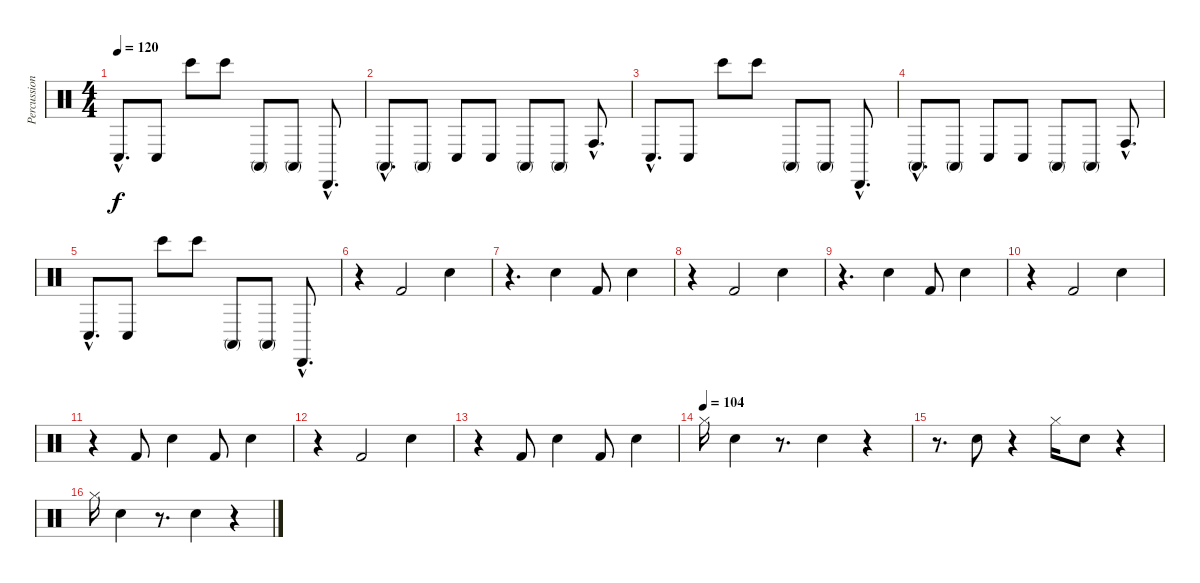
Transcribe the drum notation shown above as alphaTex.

\track ("Percussion(By Bela B.)" "Percussion") {instrument percussion}
\staff {score}
\articulation defaults
\ts (4 4)
\tempo 120
\clef neutral
\ks c "Conga low (hit)"{hac}.8{d dy f} "Conga low (hit)".8 "Bongo High (hit)".8 "Bongo High (hit)".8 "Conga high (mute)".8 "Conga high (mute)".8 "Cabasa (hit)"{hac}.8{d}
|
"Conga high (mute)"{hac}.8{d} "Conga high (mute)".8 "Conga low (hit)".8 "Conga low (hit)".8 "Conga high (mute)".8 "Conga high (mute)".8 "Conga high (hit)"{hac}.8{d} |
"Conga low (hit)"{hac}.8{d} "Conga low (hit)".8 "Bongo High (hit)".8 "Bongo High (hit)".8 "Conga high (mute)".8 "Conga high (mute)".8 "Cabasa (hit)"{hac}.8{d} |
"Conga high (mute)"{hac}.8{d} "Conga high (mute)".8 "Conga low (hit)".8 "Conga low (hit)".8 "Conga high (mute)".8 "Conga high (mute)".8 "Conga high (hit)"{hac}.8{d} |
"Conga low (hit)"{hac}.8{d} "Conga low (hit)".8 "Bongo High (hit)".8 "Bongo High (hit)".8 "Conga high (mute)".8 "Conga high (mute)".8 "Cabasa (hit)"{hac}.8{d} |
r.4 "Kick (hit) 2".2 "Snare (hit) 2".4 |
r.4{d} "Electric Snare (hit)".4 "Kick (hit) 2".8 "Snare (hit) 2".4 |
r.4 "Kick (hit) 2".2 "Snare (hit) 2".4 |
r.4{d} "Electric Snare (hit)".4 "Kick (hit) 2".8 "Snare (hit) 2".4 |
r.4 "Kick (hit) 2".2 "Snare (hit) 2".4 |
r.4 "Kick (hit) 2".8 "Electric Snare (hit)".4 "Kick (hit) 2".8 "Snare (hit) 2".4 |
r.4 "Kick (hit) 2".2 "Snare (hit) 2".4 |
r.4 "Kick (hit) 2".8 "Electric Snare (hit)".4 "Kick (hit) 2".8 "Snare (hit) 2".4 |
\tempo (104)
"Hi-Hat (closed)".16 "Electric Snare (hit)".4 r.8{d} "Electric Snare (hit)".4 r.4 |
r.8{d} "Electric Snare (hit)".8 r.4 "Hi-Hat (closed)".16 "Electric Snare (hit)".8 r.4 |
"Hi-Hat (closed)".16 "Electric Snare (hit)".4 r.8{d} "Electric Snare (hit)".4 r.4
